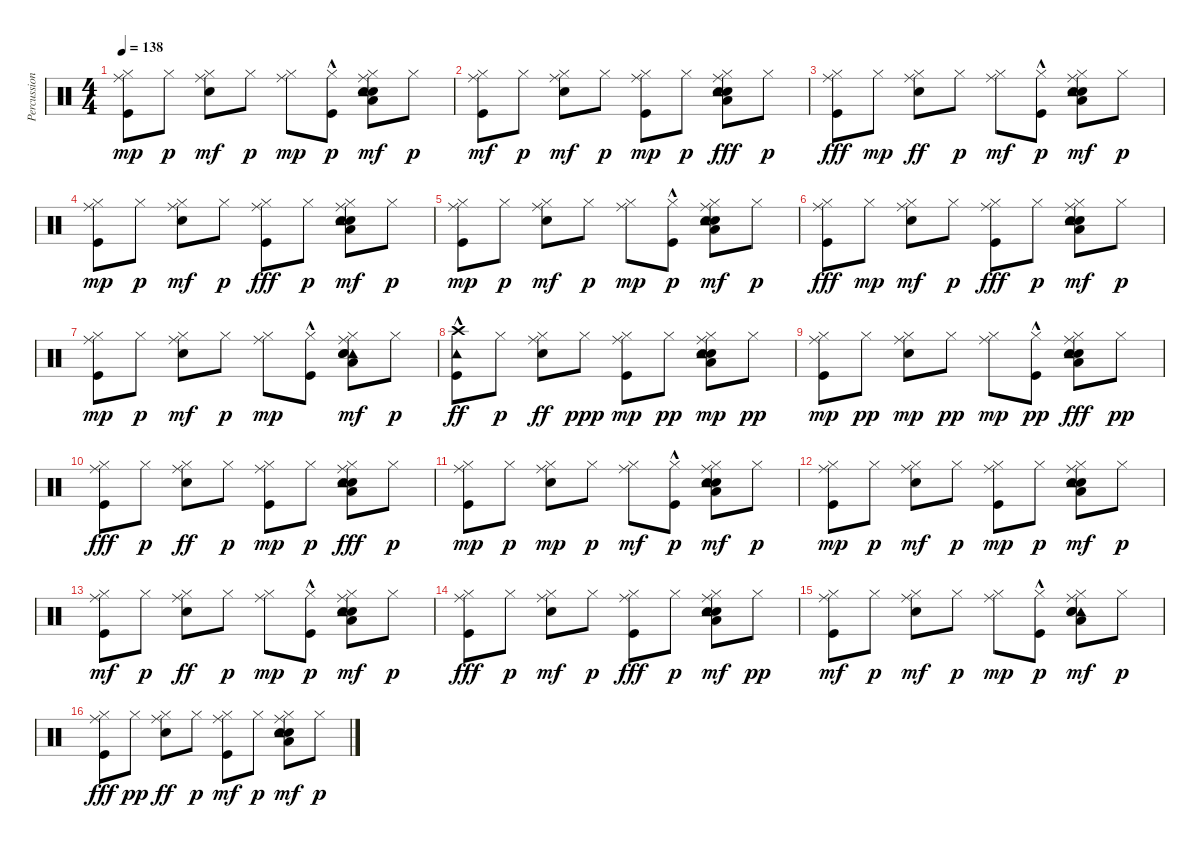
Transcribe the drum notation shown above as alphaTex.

\track ("Percussion" "Percussion") {instrument percussion}
\staff {score}
\articulation defaults
\ts (4 4)
\tempo 138
\clef neutral
\ks c
("Kick (hit)" "Hi-Hat (closed)" "Ride (middle)").8{dy mp} "Hi-Hat (closed)".8{dy p} ("Electric Snare (hit)" "Hi-Hat (closed)" "Ride (middle)").8{dy mf} "Hi-Hat (closed)".8{dy p} ("Hi-Hat (closed)" "Ride (middle)").8{dy mp} ("Kick (hit)"{hac} "Hi-Hat (closed)").8{dy p} ("Hi-Hat (closed)" "Hand Clap (hit)" "Low Floor Tom (hit)" "Snare (hit) 2" "Tambourine (hit)" "Ride (middle)").8{dy mf} "Hi-Hat (closed)".8{dy p} |
("Hi-Hat (closed)" "Kick (hit)" "Ride (middle)").8{dy mf} "Hi-Hat (closed)".8{dy p} ("Electric Snare (hit)" "Hi-Hat (closed)" "Ride (middle)").8{dy mf} "Hi-Hat (closed)".8{dy p} ("Kick (hit)" "Ride (middle)" "Hi-Hat (closed)").8{dy mp} "Hi-Hat (closed)".8{dy p} ("Ride (middle)" "Hand Clap (hit)" "Snare (hit) 2" "Low Floor Tom (hit)" "Tambourine (hit)" "Hi-Hat (closed)").8{dy fff} "Hi-Hat (closed)".8{dy p} |
("Ride (middle)" "Kick (hit)" "Hi-Hat (closed)").8{dy fff} "Hi-Hat (closed)".8{dy mp} ("Ride (middle)" "Electric Snare (hit)" "Hi-Hat (closed)").8{dy ff} "Hi-Hat (closed)".8{dy p} ("Ride (middle)" "Hi-Hat (closed)").8{dy mf} ("Kick (hit)"{hac} "Hi-Hat (closed)").8{dy p} ("Snare (hit) 2" "Hand Clap (hit)" "Tambourine (hit)" "Low Floor Tom (hit)" "Hi-Hat (closed)" "Ride (middle)").8{dy mf} "Hi-Hat (closed)".8{dy p} |
("Kick (hit)" "Hi-Hat (closed)" "Ride (middle)").8{dy mp} "Hi-Hat (closed)".8{dy p} ("Electric Snare (hit)" "Hi-Hat (closed)" "Ride (middle)").8{dy mf} "Hi-Hat (closed)".8{dy p} ("Hi-Hat (closed)" "Ride (middle)" "Kick (hit)").8{dy fff} "Hi-Hat (closed)".8{dy p} ("Snare (hit) 2" "Hand Clap (hit)" "Low Floor Tom (hit)" "Tambourine (hit)" "Hi-Hat (closed)" "Ride (middle)").8{dy mf} "Hi-Hat (closed)".8{dy p} |
("Kick (hit)" "Hi-Hat (closed)" "Ride (middle)").8{dy mp} "Hi-Hat (closed)".8{dy p} ("Hi-Hat (closed)" "Electric Snare (hit)" "Ride (middle)").8{dy mf} "Hi-Hat (closed)".8{dy p} ("Hi-Hat (closed)" "Ride (middle)").8{dy mp} ("Kick (hit)"{hac} "Hi-Hat (closed)").8{dy p} ("Snare (hit) 2" "Hand Clap (hit)" "Tambourine (hit)" "Low Floor Tom (hit)" "Hi-Hat (closed)" "Ride (middle)").8{dy mf} "Hi-Hat (closed)".8{dy p} |
("Hi-Hat (closed)" "Ride (middle)" "Kick (hit)").8{dy fff} "Hi-Hat (closed)".8{dy mp} ("Electric Snare (hit)" "Hi-Hat (closed)" "Ride (middle)").8{dy mf} "Hi-Hat (closed)".8{dy p} ("Hi-Hat (closed)" "Ride (middle)" "Kick (hit)").8{dy fff} "Hi-Hat (closed)".8{dy p} ("Hand Clap (hit)" "Snare (hit) 2" "Low Floor Tom (hit)" "Tambourine (hit)" "Ride (middle)" "Hi-Hat (closed)").8{dy mf} "Hi-Hat (closed)".8{dy p} |
("Kick (hit)" "Hi-Hat (closed)" "Ride (middle)").8{dy mp} "Hi-Hat (closed)".8{dy p} ("Electric Snare (hit)" "Hi-Hat (closed)" "Ride (middle)").8{dy mf} "Hi-Hat (closed)".8{dy p} ("Hi-Hat (closed)" "Ride (middle)").8{dy mp} ("Kick (hit)"{hac} "Hi-Hat (closed)").8 ("Hi-Hat (closed)" "Tambourine (hit)" "Hand Clap (hit)" "Low Floor Tom (hit)" "Snare (hit) 2" "Ride (middle)").8{dy mf} "Hi-Hat (closed)".8{dy p} |
("Kick (hit)" "Crash high (hit)" "Tambourine (hit)"{hac}).8{dy ff} "Hi-Hat (closed)".8{dy p} ("Hi-Hat (closed)" "Ride (middle)" "Electric Snare (hit)").8{dy ff} "Hi-Hat (closed)".8{dy ppp} ("Kick (hit)" "Hi-Hat (closed)" "Ride (middle)").8{dy mp} "Hi-Hat (closed)".8{dy pp} ("Snare (hit) 2" "Tambourine (hit)" "Low Floor Tom (hit)" "Hand Clap (hit)" "Hi-Hat (closed)" "Ride (middle)").8{dy mp} "Hi-Hat (closed)".8{dy pp} |
("Kick (hit)" "Hi-Hat (closed)" "Ride (middle)").8{dy mp} "Hi-Hat (closed)".8{dy pp} ("Electric Snare (hit)" "Hi-Hat (closed)" "Ride (middle)").8{dy mp} "Hi-Hat (closed)".8{dy pp} ("Hi-Hat (closed)" "Ride (middle)").8{dy mp} ("Kick (hit)"{hac} "Hi-Hat (closed)").8{dy pp} ("Hi-Hat (closed)" "Ride (middle)" "Hand Clap (hit)" "Low Floor Tom (hit)" "Snare (hit) 2" "Tambourine (hit)").8{dy fff} "Hi-Hat (closed)".8{dy pp} |
("Hi-Hat (closed)" "Ride (middle)" "Kick (hit)").8{dy fff} "Hi-Hat (closed)".8{dy p} ("Hi-Hat (closed)" "Ride (middle)" "Electric Snare (hit)").8{dy ff} "Hi-Hat (closed)".8{dy p} ("Kick (hit)" "Hi-Hat (closed)" "Ride (middle)").8{dy mp} "Hi-Hat (closed)".8{dy p} ("Hi-Hat (closed)" "Ride (middle)" "Hand Clap (hit)" "Snare (hit) 2" "Low Floor Tom (hit)" "Tambourine (hit)").8{dy fff} "Hi-Hat (closed)".8{dy p} |
("Kick (hit)" "Hi-Hat (closed)" "Ride (middle)").8{dy mp} "Hi-Hat (closed)".8{dy p} ("Electric Snare (hit)" "Hi-Hat (closed)" "Ride (middle)").8{dy mp} "Hi-Hat (closed)".8{dy p} ("Hi-Hat (closed)" "Ride (middle)").8{dy mf} ("Kick (hit)"{hac} "Hi-Hat (closed)").8{dy p} ("Snare (hit) 2" "Hand Clap (hit)" "Tambourine (hit)" "Low Floor Tom (hit)" "Hi-Hat (closed)" "Ride (middle)").8{dy mf} "Hi-Hat (closed)".8{dy p} |
("Kick (hit)" "Hi-Hat (closed)" "Ride (middle)").8{dy mp} "Hi-Hat (closed)".8{dy p} ("Electric Snare (hit)" "Hi-Hat (closed)" "Ride (middle)").8{dy mf} "Hi-Hat (closed)".8{dy p} ("Kick (hit)" "Hi-Hat (closed)" "Ride (middle)").8{dy mp} "Hi-Hat (closed)".8{dy p} ("Snare (hit) 2" "Hand Clap (hit)" "Low Floor Tom (hit)" "Tambourine (hit)" "Hi-Hat (closed)" "Ride (middle)").8{dy mf} "Hi-Hat (closed)".8{dy p} |
("Kick (hit)" "Hi-Hat (closed)" "Ride (middle)").8{dy mf} "Hi-Hat (closed)".8{dy p} ("Hi-Hat (closed)" "Ride (middle)" "Electric Snare (hit)").8{dy ff} "Hi-Hat (closed)".8{dy p} ("Hi-Hat (closed)" "Ride (middle)").8{dy mp} ("Kick (hit)"{hac} "Hi-Hat (closed)").8{dy p} ("Snare (hit) 2" "Hand Clap (hit)" "Tambourine (hit)" "Low Floor Tom (hit)" "Hi-Hat (closed)" "Ride (middle)").8{dy mf} "Hi-Hat (closed)".8{dy p} |
("Hi-Hat (closed)" "Ride (middle)" "Kick (hit)").8{dy fff} "Hi-Hat (closed)".8{dy p} ("Electric Snare (hit)" "Hi-Hat (closed)" "Ride (middle)").8{dy mf} "Hi-Hat (closed)".8{dy p} ("Hi-Hat (closed)" "Ride (middle)" "Kick (hit)").8{dy fff} "Hi-Hat (closed)".8{dy p} ("Hand Clap (hit)" "Snare (hit) 2" "Low Floor Tom (hit)" "Tambourine (hit)" "Hi-Hat (closed)" "Ride (middle)").8{dy mf} "Hi-Hat (closed)".8{dy pp} |
("Kick (hit)" "Hi-Hat (closed)" "Ride (middle)").8{dy mf} "Hi-Hat (closed)".8{dy p} ("Electric Snare (hit)" "Hi-Hat (closed)" "Ride (middle)").8{dy mf} "Hi-Hat (closed)".8{dy p} ("Hi-Hat (closed)" "Ride (middle)").8{dy mp} ("Kick (hit)"{hac} "Hi-Hat (closed)").8{dy p} ("Tambourine (hit)" "Hand Clap (hit)" "Low Floor Tom (hit)" "Snare (hit) 2" "Hi-Hat (closed)" "Ride (middle)").8{dy mf} "Hi-Hat (closed)".8{dy p} |
("Hi-Hat (closed)" "Ride (middle)" "Kick (hit)").8{dy fff} "Hi-Hat (closed)".8{dy pp} ("Hi-Hat (closed)" "Ride (middle)" "Electric Snare (hit)").8{dy ff} "Hi-Hat (closed)".8{dy p} ("Kick (hit)" "Hi-Hat (closed)" "Ride (middle)").8{dy mf} "Hi-Hat (closed)".8{dy p} ("Snare (hit) 2" "Tambourine (hit)" "Low Floor Tom (hit)" "Hand Clap (hit)" "Hi-Hat (closed)" "Ride (middle)").8{dy mf} "Hi-Hat (closed)".8{dy p}
